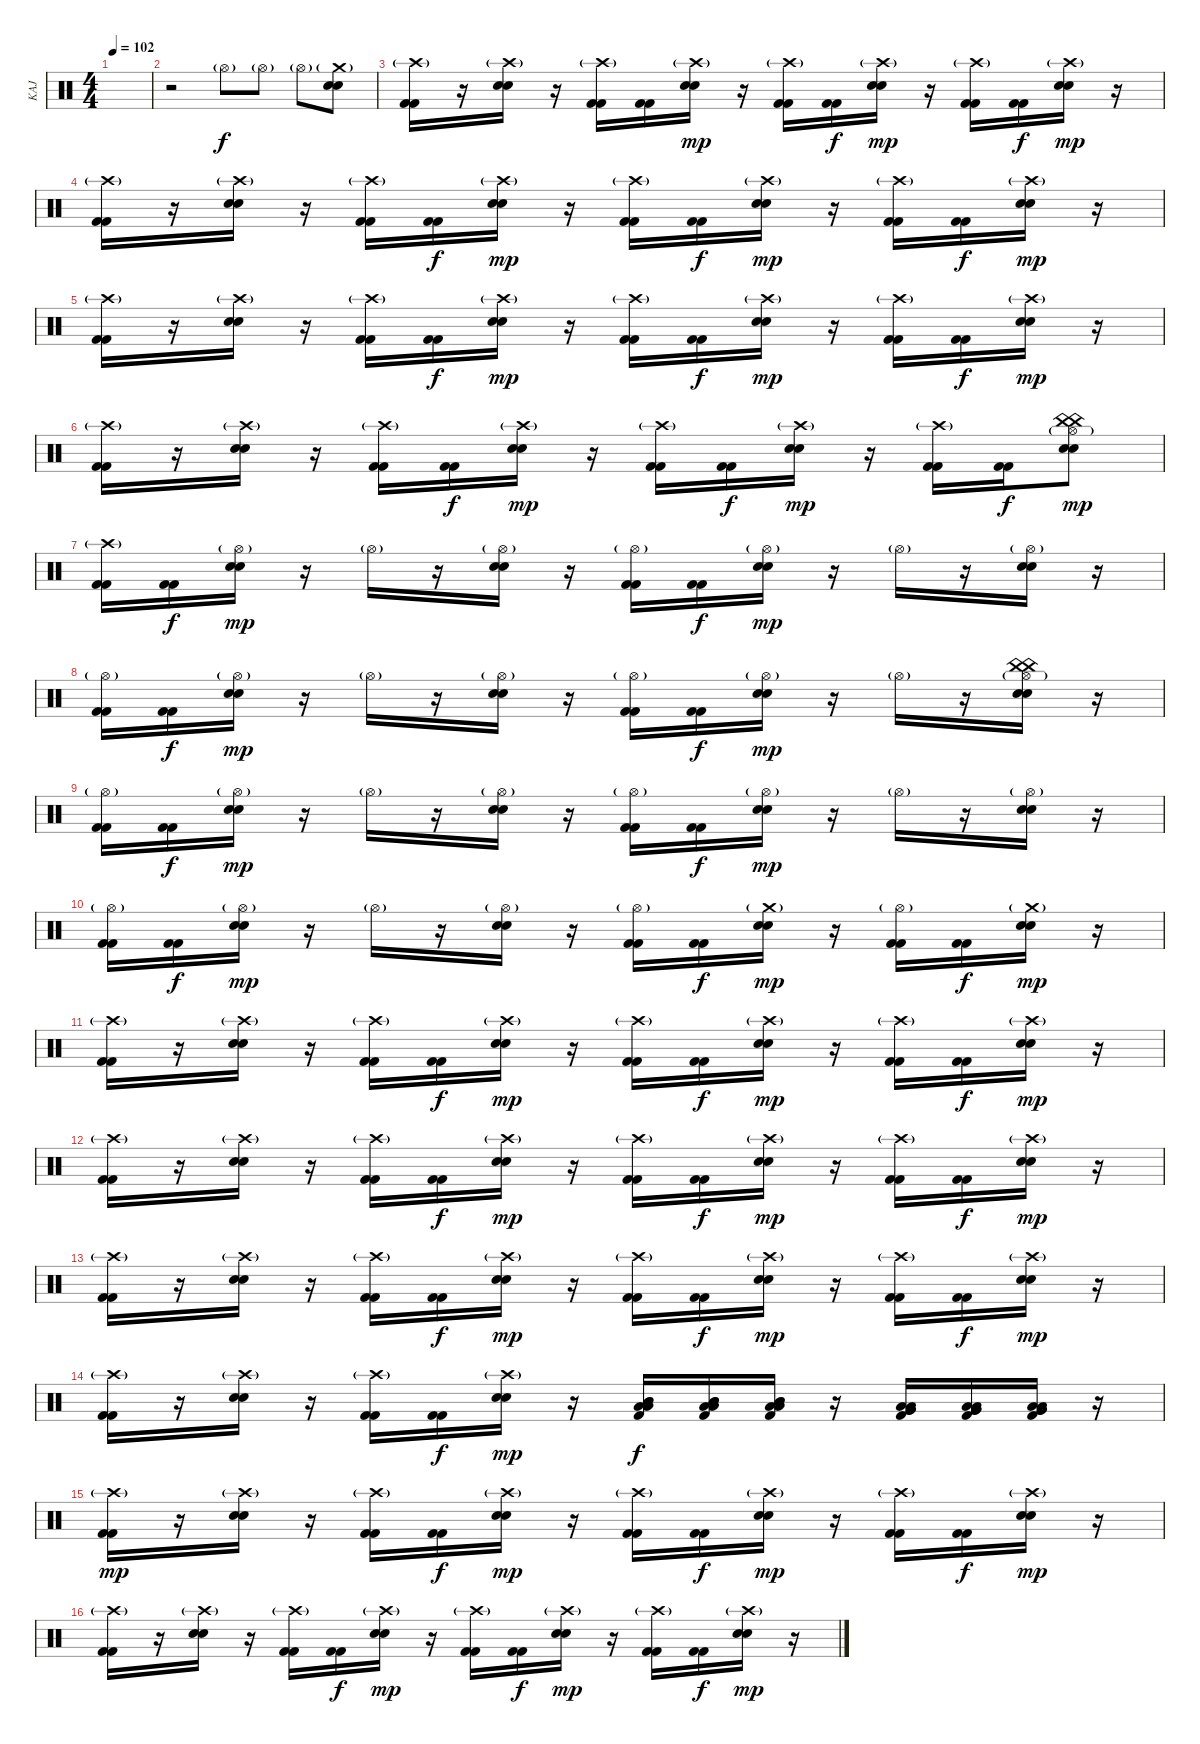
\track ("KAJ" "KAJ") {instrument percussion}
\staff {score}
\articulation defaults
\ts (4 4)
\tempo 102
\clef neutral
\ks c
|
r.2 "Hi-Hat (open)"{g}.8 "Hi-Hat (open)"{g}.8 "Hi-Hat (open)"{g}.8 ("Crash medium (hit)"{g} "Electric Snare (hit)" "Electric Snare (hit)").8 |
("Crash high (hit)"{g} "Kick (hit) 2" "Kick (hit) 2").16 r.16 ("Crash high (hit)"{g} "Electric Snare (hit)" "Electric Snare (hit)").16 r.16 ("Crash high (hit)"{g} "Kick (hit) 2" "Kick (hit) 2").16 ("Kick (hit) 2" "Kick (hit) 2").16{dy f} ("Crash high (hit)"{g} "Electric Snare (hit)" "Electric Snare (hit)").16{dy mp} r.16 ("Crash high (hit)"{g} "Kick (hit) 2" "Kick (hit) 2").16 ("Kick (hit) 2" "Kick (hit) 2").16{dy f} ("Crash high (hit)"{g} "Electric Snare (hit)" "Electric Snare (hit)").16{dy mp} r.16 ("Crash high (hit)"{g} "Kick (hit) 2" "Kick (hit) 2").16 ("Kick (hit) 2" "Kick (hit) 2").16{dy f} ("Crash high (hit)"{g} "Electric Snare (hit)" "Electric Snare (hit)").16{dy mp} r.16 |
("Crash high (hit)"{g} "Kick (hit) 2" "Kick (hit) 2").16 r.16 ("Crash high (hit)"{g} "Electric Snare (hit)" "Electric Snare (hit)").16 r.16 ("Crash high (hit)"{g} "Kick (hit) 2" "Kick (hit) 2").16 ("Kick (hit) 2" "Kick (hit) 2").16{dy f} ("Crash high (hit)"{g} "Electric Snare (hit)" "Electric Snare (hit)").16{dy mp} r.16 ("Crash high (hit)"{g} "Kick (hit) 2" "Kick (hit) 2").16 ("Kick (hit) 2" "Kick (hit) 2").16{dy f} ("Crash high (hit)"{g} "Electric Snare (hit)" "Electric Snare (hit)").16{dy mp} r.16 ("Crash high (hit)"{g} "Kick (hit) 2" "Kick (hit) 2").16 ("Kick (hit) 2" "Kick (hit) 2").16{dy f} ("Crash high (hit)"{g} "Electric Snare (hit)" "Electric Snare (hit)").16{dy mp} r.16 |
("Crash high (hit)"{g} "Kick (hit) 2" "Kick (hit) 2").16 r.16 ("Crash high (hit)"{g} "Electric Snare (hit)" "Electric Snare (hit)").16 r.16 ("Crash high (hit)"{g} "Kick (hit) 2" "Kick (hit) 2").16 ("Kick (hit) 2" "Kick (hit) 2").16{dy f} ("Crash high (hit)"{g} "Electric Snare (hit)" "Electric Snare (hit)").16{dy mp} r.16 ("Crash high (hit)"{g} "Kick (hit) 2" "Kick (hit) 2").16 ("Kick (hit) 2" "Kick (hit) 2").16{dy f} ("Crash high (hit)"{g} "Electric Snare (hit)" "Electric Snare (hit)").16{dy mp} r.16 ("Crash high (hit)"{g} "Kick (hit) 2" "Kick (hit) 2").16 ("Kick (hit) 2" "Kick (hit) 2").16{dy f} ("Crash high (hit)"{g} "Electric Snare (hit)" "Electric Snare (hit)").16{dy mp} r.16 |
("Crash high (hit)"{g} "Kick (hit) 2" "Kick (hit) 2").16 r.16 ("Crash high (hit)"{g} "Electric Snare (hit)" "Electric Snare (hit)").16 r.16 ("Crash high (hit)"{g} "Kick (hit) 2" "Kick (hit) 2").16 ("Kick (hit) 2" "Kick (hit) 2").16{dy f} ("Crash high (hit)"{g} "Electric Snare (hit)" "Electric Snare (hit)").16{dy mp} r.16 ("Crash high (hit)"{g} "Kick (hit) 2" "Kick (hit) 2").16 ("Kick (hit) 2" "Kick (hit) 2").16{dy f} ("Crash high (hit)"{g} "Electric Snare (hit)" "Electric Snare (hit)").16{dy mp} r.16 ("Crash high (hit)"{g} "Kick (hit) 2" "Kick (hit) 2").16 ("Kick (hit) 2" "Kick (hit) 2").16{dy f} ("Hi-Hat (open)"{g} "China (hit)" "China (hit)" "Electric Snare (hit)" "Electric Snare (hit)").8{dy mp} |
("Crash high (hit)"{g} "Kick (hit) 2" "Kick (hit) 2").16 ("Kick (hit) 2" "Kick (hit) 2").16{dy f} ("Hi-Hat (open)"{g} "Electric Snare (hit)" "Electric Snare (hit)").16{dy mp} r.16 "Hi-Hat (open)"{g}.16 r.16 ("Hi-Hat (open)"{g} "Electric Snare (hit)" "Electric Snare (hit)").16 r.16 ("Hi-Hat (open)"{g} "Kick (hit) 2" "Kick (hit) 2").16 ("Kick (hit) 2" "Kick (hit) 2").16{dy f} ("Hi-Hat (open)"{g} "Electric Snare (hit)" "Electric Snare (hit)").16{dy mp} r.16 "Hi-Hat (open)"{g}.16 r.16 ("Hi-Hat (open)"{g} "Electric Snare (hit)" "Electric Snare (hit)").16 r.16 |
("Hi-Hat (open)"{g} "Kick (hit) 2" "Kick (hit) 2").16 ("Kick (hit) 2" "Kick (hit) 2").16{dy f} ("Hi-Hat (open)"{g} "Electric Snare (hit)" "Electric Snare (hit)").16{dy mp} r.16 "Hi-Hat (open)"{g}.16 r.16 ("Hi-Hat (open)"{g} "Electric Snare (hit)" "Electric Snare (hit)").16 r.16 ("Hi-Hat (open)"{g} "Kick (hit) 2" "Kick (hit) 2").16 ("Kick (hit) 2" "Kick (hit) 2").16{dy f} ("Hi-Hat (open)"{g} "Electric Snare (hit)" "Electric Snare (hit)").16{dy mp} r.16 "Hi-Hat (open)"{g}.16 r.16 ("Hi-Hat (open)"{g} "China (hit)" "China (hit)" "Electric Snare (hit)" "Electric Snare (hit)").16 r.16 |
("Hi-Hat (open)"{g} "Kick (hit) 2" "Kick (hit) 2").16 ("Kick (hit) 2" "Kick (hit) 2").16{dy f} ("Hi-Hat (open)"{g} "Electric Snare (hit)" "Electric Snare (hit)").16{dy mp} r.16 "Hi-Hat (open)"{g}.16 r.16 ("Hi-Hat (open)"{g} "Electric Snare (hit)" "Electric Snare (hit)").16 r.16 ("Hi-Hat (open)"{g} "Kick (hit) 2" "Kick (hit) 2").16 ("Kick (hit) 2" "Kick (hit) 2").16{dy f} ("Hi-Hat (open)"{g} "Electric Snare (hit)" "Electric Snare (hit)").16{dy mp} r.16 "Hi-Hat (open)"{g}.16 r.16 ("Hi-Hat (open)"{g} "Electric Snare (hit)" "Electric Snare (hit)").16 r.16 |
("Hi-Hat (open)"{g} "Kick (hit) 2" "Kick (hit) 2").16 ("Kick (hit) 2" "Kick (hit) 2").16{dy f} ("Hi-Hat (open)"{g} "Electric Snare (hit)" "Electric Snare (hit)").16{dy mp} r.16 "Hi-Hat (open)"{g}.16 r.16 ("Hi-Hat (open)"{g} "Electric Snare (hit)" "Electric Snare (hit)").16 r.16 ("Hi-Hat (open)"{g} "Kick (hit) 2" "Kick (hit) 2").16 ("Kick (hit) 2" "Kick (hit) 2").16{dy f} ("Crash medium (hit)"{g} "Electric Snare (hit)" "Electric Snare (hit)").16{dy mp} r.16 ("Hi-Hat (open)"{g} "Kick (hit) 2" "Kick (hit) 2").16 ("Kick (hit) 2" "Kick (hit) 2").16{dy f} ("Crash medium (hit)"{g} "Electric Snare (hit)" "Electric Snare (hit)").16{dy mp} r.16 |
("Crash high (hit)"{g} "Kick (hit) 2" "Kick (hit) 2").16 r.16 ("Crash high (hit)"{g} "Electric Snare (hit)" "Electric Snare (hit)").16 r.16 ("Crash high (hit)"{g} "Kick (hit) 2" "Kick (hit) 2").16 ("Kick (hit) 2" "Kick (hit) 2").16{dy f} ("Crash high (hit)"{g} "Electric Snare (hit)" "Electric Snare (hit)").16{dy mp} r.16 ("Crash high (hit)"{g} "Kick (hit) 2" "Kick (hit) 2").16 ("Kick (hit) 2" "Kick (hit) 2").16{dy f} ("Crash high (hit)"{g} "Electric Snare (hit)" "Electric Snare (hit)").16{dy mp} r.16 ("Crash high (hit)"{g} "Kick (hit) 2" "Kick (hit) 2").16 ("Kick (hit) 2" "Kick (hit) 2").16{dy f} ("Crash high (hit)"{g} "Electric Snare (hit)" "Electric Snare (hit)").16{dy mp} r.16 |
("Crash high (hit)"{g} "Kick (hit) 2" "Kick (hit) 2").16 r.16 ("Crash high (hit)"{g} "Electric Snare (hit)" "Electric Snare (hit)").16 r.16 ("Crash high (hit)"{g} "Kick (hit) 2" "Kick (hit) 2").16 ("Kick (hit) 2" "Kick (hit) 2").16{dy f} ("Crash high (hit)"{g} "Electric Snare (hit)" "Electric Snare (hit)").16{dy mp} r.16 ("Crash high (hit)"{g} "Kick (hit) 2" "Kick (hit) 2").16 ("Kick (hit) 2" "Kick (hit) 2").16{dy f} ("Crash high (hit)"{g} "Electric Snare (hit)" "Electric Snare (hit)").16{dy mp} r.16 ("Crash high (hit)"{g} "Kick (hit) 2" "Kick (hit) 2").16 ("Kick (hit) 2" "Kick (hit) 2").16{dy f} ("Crash high (hit)"{g} "Electric Snare (hit)" "Electric Snare (hit)").16{dy mp} r.16 |
("Crash high (hit)"{g} "Kick (hit) 2" "Kick (hit) 2").16 r.16 ("Crash high (hit)"{g} "Electric Snare (hit)" "Electric Snare (hit)").16 r.16 ("Crash high (hit)"{g} "Kick (hit) 2" "Kick (hit) 2").16 ("Kick (hit) 2" "Kick (hit) 2").16{dy f} ("Crash high (hit)"{g} "Electric Snare (hit)" "Electric Snare (hit)").16{dy mp} r.16 ("Crash high (hit)"{g} "Kick (hit) 2" "Kick (hit) 2").16 ("Kick (hit) 2" "Kick (hit) 2").16{dy f} ("Crash high (hit)"{g} "Electric Snare (hit)" "Electric Snare (hit)").16{dy mp} r.16 ("Crash high (hit)"{g} "Kick (hit) 2" "Kick (hit) 2").16 ("Kick (hit) 2" "Kick (hit) 2").16{dy f} ("Crash high (hit)"{g} "Electric Snare (hit)" "Electric Snare (hit)").16{dy mp} r.16 |
("Crash high (hit)"{g} "Kick (hit) 2" "Kick (hit) 2").16 r.16 ("Crash high (hit)"{g} "Electric Snare (hit)" "Electric Snare (hit)").16 r.16 ("Crash high (hit)"{g} "Kick (hit) 2" "Kick (hit) 2").16 ("Kick (hit) 2" "Kick (hit) 2").16{dy f} ("Crash high (hit)"{g} "Electric Snare (hit)" "Electric Snare (hit)").16{dy mp} r.16 ("Kick (hit) 2" "Mid Tom (hit)" "Mid Tom (hit)" "Low Tom (hit)" "Low Tom (hit)").16{dy f} ("Kick (hit) 2" "Mid Tom (hit)" "Mid Tom (hit)" "Low Tom (hit)" "Low Tom (hit)").16 ("Kick (hit) 2" "Mid Tom (hit)" "Mid Tom (hit)" "Low Tom (hit)" "Low Tom (hit)").16 r.16 ("Kick (hit) 2" "Low Tom (hit)" "Low Tom (hit)" "Very Low Tom (hit)" "Very Low Tom (hit)").16 ("Kick (hit) 2" "Low Tom (hit)" "Low Tom (hit)" "Very Low Tom (hit)" "Very Low Tom (hit)").16 ("Kick (hit) 2" "Low Tom (hit)" "Low Tom (hit)" "Very Low Tom (hit)" "Very Low Tom (hit)").16 r.16 |
("Crash high (hit)"{g} "Kick (hit) 2" "Kick (hit) 2").16{dy mp} r.16 ("Crash high (hit)"{g} "Electric Snare (hit)" "Electric Snare (hit)").16 r.16 ("Crash high (hit)"{g} "Kick (hit) 2" "Kick (hit) 2").16 ("Kick (hit) 2" "Kick (hit) 2").16{dy f} ("Crash high (hit)"{g} "Electric Snare (hit)" "Electric Snare (hit)").16{dy mp} r.16 ("Crash high (hit)"{g} "Kick (hit) 2" "Kick (hit) 2").16 ("Kick (hit) 2" "Kick (hit) 2").16{dy f} ("Crash high (hit)"{g} "Electric Snare (hit)" "Electric Snare (hit)").16{dy mp} r.16 ("Crash high (hit)"{g} "Kick (hit) 2" "Kick (hit) 2").16 ("Kick (hit) 2" "Kick (hit) 2").16{dy f} ("Crash high (hit)"{g} "Electric Snare (hit)" "Electric Snare (hit)").16{dy mp} r.16 |
("Crash high (hit)"{g} "Kick (hit) 2" "Kick (hit) 2").16 r.16 ("Crash high (hit)"{g} "Electric Snare (hit)" "Electric Snare (hit)").16 r.16 ("Crash high (hit)"{g} "Kick (hit) 2" "Kick (hit) 2").16 ("Kick (hit) 2" "Kick (hit) 2").16{dy f} ("Crash high (hit)"{g} "Electric Snare (hit)" "Electric Snare (hit)").16{dy mp} r.16 ("Crash high (hit)"{g} "Kick (hit) 2" "Kick (hit) 2").16 ("Kick (hit) 2" "Kick (hit) 2").16{dy f} ("Crash high (hit)"{g} "Electric Snare (hit)" "Electric Snare (hit)").16{dy mp} r.16 ("Crash high (hit)"{g} "Kick (hit) 2" "Kick (hit) 2").16 ("Kick (hit) 2" "Kick (hit) 2").16{dy f} ("Crash high (hit)"{g} "Electric Snare (hit)" "Electric Snare (hit)").16{dy mp} r.16
